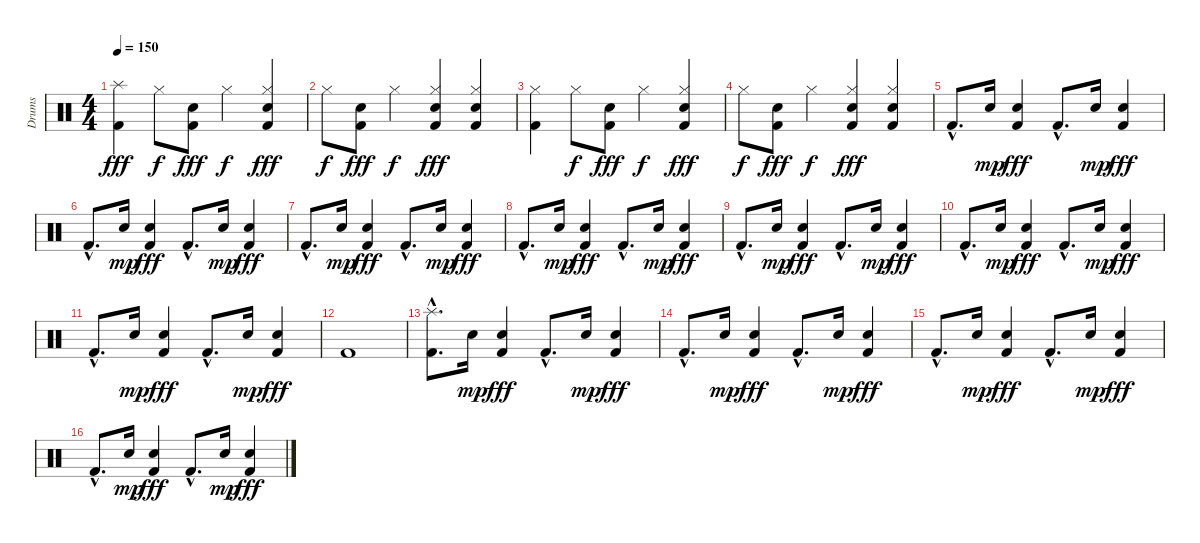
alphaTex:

\track ("Drums" "Drums") {instrument percussion}
\staff {score}
\articulation defaults
\ts (4 4)
\tempo 150
\clef neutral
\ks c
("Splash (hit)" "Kick (hit) 2").4{dy fff} "Hi-Hat (closed)".8{dy f} ("Snare (hit) 2" "Kick (hit) 2").8{dy fff} "Hi-Hat (closed)".4{dy f} ("Hi-Hat (closed)" "Snare (hit) 2" "Kick (hit) 2").4{dy fff} |
"Hi-Hat (closed)".8{dy f} ("Snare (hit) 2" "Kick (hit) 2").8{dy fff} "Hi-Hat (closed)".4{dy f} ("Hi-Hat (closed)" "Snare (hit) 2" "Kick (hit) 2").4{dy fff} ("Hi-Hat (closed)" "Snare (hit) 2" "Kick (hit) 2").4 |
("Hi-Hat (closed)" "Kick (hit) 2").4 "Hi-Hat (closed)".8{dy f} ("Snare (hit) 2" "Kick (hit) 2").8{dy fff} "Hi-Hat (closed)".4{dy f} ("Hi-Hat (closed)" "Snare (hit) 2" "Kick (hit) 2").4{dy fff} |
"Hi-Hat (closed)".8{dy f} ("Snare (hit) 2" "Kick (hit) 2").8{dy fff} "Hi-Hat (closed)".4{dy f} ("Hi-Hat (closed)" "Snare (hit) 2" "Kick (hit) 2").4{dy fff} ("Hi-Hat (closed)" "Snare (hit) 2" "Kick (hit) 2").4 |
"Kick (hit) 2"{hac}.8{d} "Snare (hit) 2".16{dy mp} ("Snare (hit) 2" "Kick (hit) 2").4{dy fff} "Kick (hit) 2"{hac}.8{d} "Snare (hit) 2".16{dy mp} ("Snare (hit) 2" "Kick (hit) 2").4{dy fff} |
"Kick (hit) 2"{hac}.8{d} "Snare (hit) 2".16{dy mp} ("Snare (hit) 2" "Kick (hit) 2").4{dy fff} "Kick (hit) 2"{hac}.8{d} "Snare (hit) 2".16{dy mp} ("Snare (hit) 2" "Kick (hit) 2").4{dy fff} |
"Kick (hit) 2"{hac}.8{d} "Snare (hit) 2".16{dy mp} ("Snare (hit) 2" "Kick (hit) 2").4{dy fff} "Kick (hit) 2"{hac}.8{d} "Snare (hit) 2".16{dy mp} ("Snare (hit) 2" "Kick (hit) 2").4{dy fff} |
"Kick (hit) 2"{hac}.8{d} "Snare (hit) 2".16{dy mp} ("Snare (hit) 2" "Kick (hit) 2").4{dy fff} "Kick (hit) 2"{hac}.8{d} "Snare (hit) 2".16{dy mp} ("Snare (hit) 2" "Kick (hit) 2").4{dy fff} |
"Kick (hit) 2"{hac}.8{d} "Snare (hit) 2".16{dy mp} ("Snare (hit) 2" "Kick (hit) 2").4{dy fff} "Kick (hit) 2"{hac}.8{d} "Snare (hit) 2".16{dy mp} ("Snare (hit) 2" "Kick (hit) 2").4{dy fff} |
"Kick (hit) 2"{hac}.8{d} "Snare (hit) 2".16{dy mp} ("Snare (hit) 2" "Kick (hit) 2").4{dy fff} "Kick (hit) 2"{hac}.8{d} "Snare (hit) 2".16{dy mp} ("Snare (hit) 2" "Kick (hit) 2").4{dy fff} |
"Kick (hit) 2"{hac}.8{d} "Snare (hit) 2".16{dy mp} ("Snare (hit) 2" "Kick (hit) 2").4{dy fff} "Kick (hit) 2"{hac}.8{d} "Snare (hit) 2".16{dy mp} ("Snare (hit) 2" "Kick (hit) 2").4{dy fff} |
"Kick (hit) 2".1 |
("Splash (hit)"{hac} "Kick (hit) 2"{hac}).8{d} "Snare (hit) 2".16{dy mp} ("Snare (hit) 2" "Kick (hit) 2").4{dy fff} "Kick (hit) 2"{hac}.8{d} "Snare (hit) 2".16{dy mp} ("Snare (hit) 2" "Kick (hit) 2").4{dy fff} |
"Kick (hit) 2"{hac}.8{d} "Snare (hit) 2".16{dy mp} ("Snare (hit) 2" "Kick (hit) 2").4{dy fff} "Kick (hit) 2"{hac}.8{d} "Snare (hit) 2".16{dy mp} ("Snare (hit) 2" "Kick (hit) 2").4{dy fff} |
"Kick (hit) 2"{hac}.8{d} "Snare (hit) 2".16{dy mp} ("Snare (hit) 2" "Kick (hit) 2").4{dy fff} "Kick (hit) 2"{hac}.8{d} "Snare (hit) 2".16{dy mp} ("Snare (hit) 2" "Kick (hit) 2").4{dy fff} |
"Kick (hit) 2"{hac}.8{d} "Snare (hit) 2".16{dy mp} ("Snare (hit) 2" "Kick (hit) 2").4{dy fff} "Kick (hit) 2"{hac}.8{d} "Snare (hit) 2".16{dy mp} ("Snare (hit) 2" "Kick (hit) 2").4{dy fff}
